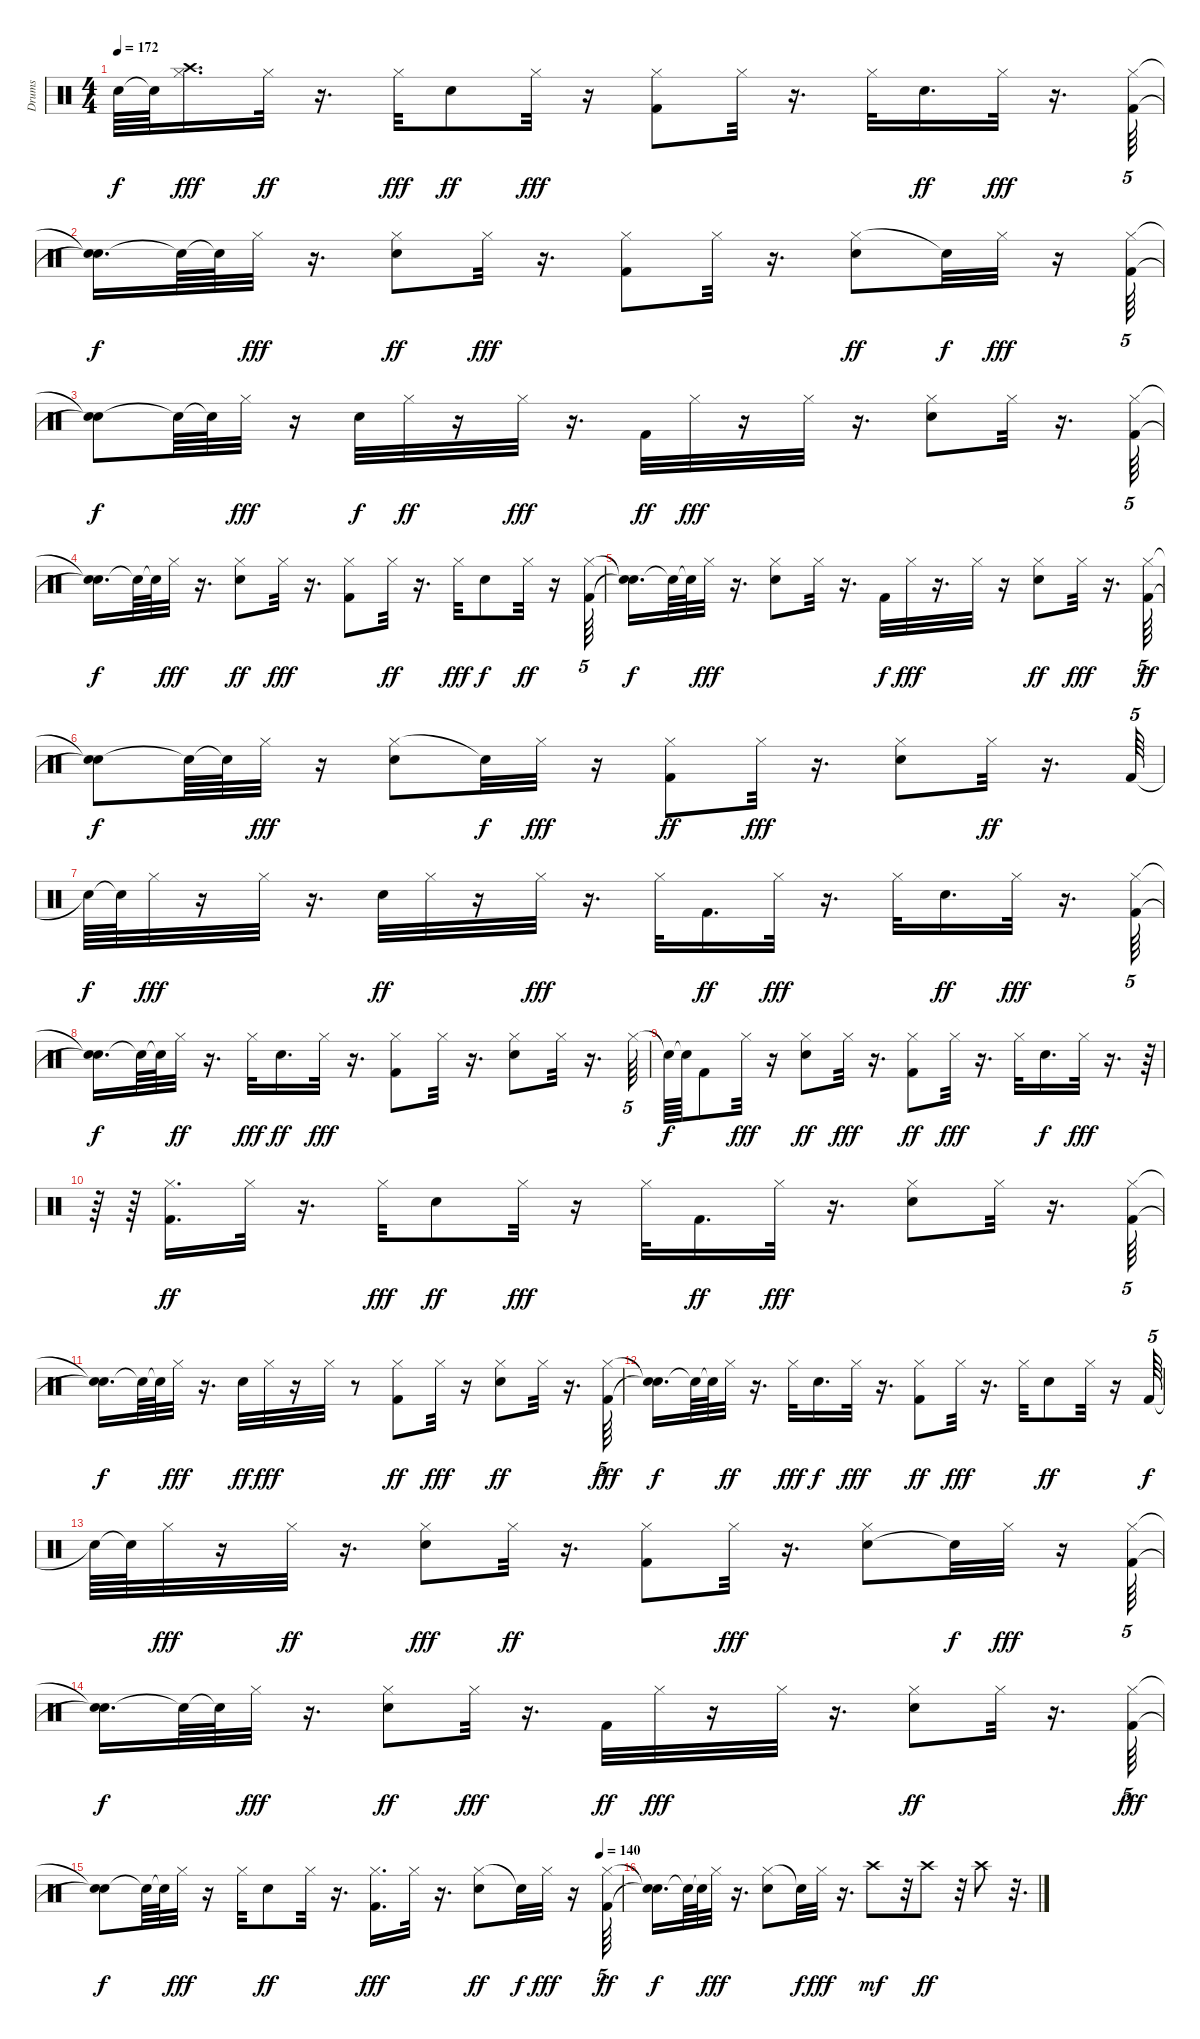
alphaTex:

\track ("Drums" "Drums") {instrument percussion}
\staff {score}
\articulation defaults
\ts (4 4)
\tempo 172
\clef neutral
\ks c "Snare (hit)"{t}.64{dy f} "Snare (hit)"{t}.64
("Hi-Hat (closed)" "Crash high (hit)").16{d dy fff} "Hi-Hat (closed)".32{dy ff} r.16{d} "Hi-Hat (closed)".32{dy fff} "Electric Snare (hit)".8{dy ff} "Hi-Hat (closed)".32{dy fff} r.16 ("Hi-Hat (closed)" "Kick (hit) 2").8 "Hi-Hat (closed)".32 r.16{d} "Hi-Hat (closed)".32 "Electric Snare (hit)".16{d dy ff} "Hi-Hat (closed)".32{dy fff} r.16{d} ("Kick (hit) 2" "Hi-Hat (closed)").64{tu (5 4)} |
("Snare (hit)"{t} "Snare (hit)"{t}).16{d dy f} "Snare (hit)"{t}.64 "Snare (hit)"{t}.64 "Hi-Hat (closed)".32{dy fff} r.16{d} ("Hi-Hat (closed)" "Electric Snare (hit)").8{dy ff} "Hi-Hat (closed)".32{dy fff} r.16{d} ("Hi-Hat (closed)" "Kick (hit) 2").8 "Hi-Hat (closed)".32 r.16{d} ("Hi-Hat (closed)" "Electric Snare (hit)").8{dy ff} "Snare (hit)"{t}.32{dy f} "Hi-Hat (closed)".32{dy fff} r.16 ("Kick (hit) 2" "Hi-Hat (closed)").64{tu (5 4)} |
("Snare (hit)"{t} "Snare (hit)"{t}).8{dy f} "Snare (hit)"{t}.64 "Snare (hit)"{t}.64 "Hi-Hat (closed)".32{dy fff} r.16 "Electric Snare (hit)".32{dy f} "Hi-Hat (closed)".32{dy ff} r.16 "Hi-Hat (closed)".32{dy fff} r.16{d} "Kick (hit) 2".32{dy ff} "Hi-Hat (closed)".32{dy fff} r.16 "Hi-Hat (closed)".32 r.16{d} ("Hi-Hat (closed)" "Electric Snare (hit)").8 "Hi-Hat (closed)".32 r.16{d} ("Kick (hit) 2" "Hi-Hat (closed)").64{tu (5 4)} |
("Snare (hit)"{t} "Snare (hit)"{t}).16{d dy f} "Snare (hit)"{t}.64 "Snare (hit)"{t}.64 "Hi-Hat (closed)".32{dy fff} r.16{d} ("Electric Snare (hit)" "Hi-Hat (closed)").8{dy ff} "Hi-Hat (closed)".32{dy fff} r.16{d} ("Kick (hit) 2" "Hi-Hat (closed)").8 "Hi-Hat (closed)".32{dy ff} r.16{d} "Hi-Hat (closed)".32{dy fff} "Electric Snare (hit)".8{dy f} "Hi-Hat (closed)".32{dy ff} r.16 ("Kick (hit) 2" "Hi-Hat (closed)").64{tu (5 4)} |
("Snare (hit)"{t} "Snare (hit)"{t}).16{d dy f} "Snare (hit)"{t}.64 "Snare (hit)"{t}.64 "Hi-Hat (closed)".32{dy fff} r.16{d} ("Electric Snare (hit)" "Hi-Hat (closed)").8 "Hi-Hat (closed)".32 r.16{d} "Kick (hit) 2".32{dy f} "Hi-Hat (closed)".32{dy fff} r.16{d} "Hi-Hat (closed)".32 r.16 ("Hi-Hat (closed)" "Electric Snare (hit)").8{dy ff} "Hi-Hat (closed)".32{dy fff} r.16{d} ("Hi-Hat (closed)" "Kick (hit) 2").64{tu (5 4) dy ff} |
("Snare (hit)"{t} "Snare (hit)"{t}).8{dy f} "Snare (hit)"{t}.64 "Snare (hit)"{t}.64 "Hi-Hat (closed)".32{dy fff} r.16 ("Hi-Hat (closed)" "Electric Snare (hit)").8 "Snare (hit)"{t}.32{dy f} "Hi-Hat (closed)".32{dy fff} r.16 ("Kick (hit) 2" "Hi-Hat (closed)").8{dy ff} "Hi-Hat (closed)".32{dy fff} r.16{d} ("Electric Snare (hit)" "Hi-Hat (closed)").8 "Hi-Hat (closed)".32{dy ff} r.16{d} "Kick (hit) 2".64{tu (5 4)} |
"Snare (hit)"{t}.64{dy f} "Snare (hit)"{t}.64 "Hi-Hat (closed)".32{dy fff} r.16 "Hi-Hat (closed)".32 r.16{d} "Electric Snare (hit)".32{dy ff} "Hi-Hat (closed)".32 r.16 "Hi-Hat (closed)".32{dy fff} r.16{d} "Hi-Hat (closed)".32 "Kick (hit) 2".16{d dy ff} "Hi-Hat (closed)".32{dy fff} r.16{d} "Hi-Hat (closed)".32 "Electric Snare (hit)".16{d dy ff} "Hi-Hat (closed)".32{dy fff} r.16{d} ("Kick (hit) 2" "Hi-Hat (closed)").64{tu (5 4)} |
("Snare (hit)"{t} "Snare (hit)"{t}).16{d dy f} "Snare (hit)"{t}.64 "Snare (hit)"{t}.64 "Hi-Hat (closed)".32{dy ff} r.16{d} "Hi-Hat (closed)".32{dy fff} "Electric Snare (hit)".16{d dy ff} "Hi-Hat (closed)".32{dy fff} r.16{d} ("Kick (hit) 2" "Hi-Hat (closed)").8 "Hi-Hat (closed)".32 r.16{d} ("Electric Snare (hit)" "Hi-Hat (closed)").8 "Hi-Hat (closed)".32 r.16{d} "Hi-Hat (closed)".64{tu (5 4)} |
"Snare (hit)"{t}.64{dy f} "Snare (hit)"{t}.64 "Kick (hit) 2".8 "Hi-Hat (closed)".32{dy fff} r.16 ("Hi-Hat (closed)" "Electric Snare (hit)").8{dy ff} "Hi-Hat (closed)".32{dy fff} r.16{d} ("Hi-Hat (closed)" "Kick (hit) 2").8{dy ff} "Hi-Hat (closed)".32{dy fff} r.16{d} "Hi-Hat (closed)".32 "Electric Snare (hit)".16{d dy f} "Hi-Hat (closed)".32{dy fff} r.16{d} r.64{tu (5 4)} |
r.64 r.64 ("Kick (hit) 2" "Hi-Hat (closed)").16{d dy ff} "Hi-Hat (closed)".32 r.16{d} "Hi-Hat (closed)".32{dy fff} "Electric Snare (hit)".8{dy ff} "Hi-Hat (closed)".32{dy fff} r.16 "Hi-Hat (closed)".32 "Kick (hit) 2".16{d dy ff} "Hi-Hat (closed)".32{dy fff} r.16{d} ("Electric Snare (hit)" "Hi-Hat (closed)").8 "Hi-Hat (closed)".32 r.16{d} ("Kick (hit) 2" "Hi-Hat (closed)").64{tu (5 4)} |
("Snare (hit)"{t} "Snare (hit)"{t}).16{d dy f} "Snare (hit)"{t}.64 "Snare (hit)"{t}.64 "Hi-Hat (closed)".32{dy fff} r.16{d} "Electric Snare (hit)".32{dy ff} "Hi-Hat (closed)".32{dy fff} r.16 "Hi-Hat (closed)".32 r.8 ("Hi-Hat (closed)" "Kick (hit) 2").8{dy ff} "Hi-Hat (closed)".32{dy fff} r.16 ("Hi-Hat (closed)" "Electric Snare (hit)").8{dy ff} "Hi-Hat (closed)".32 r.16{d} ("Kick (hit) 2" "Hi-Hat (closed)").64{tu (5 4) dy fff} |
("Snare (hit)"{t} "Snare (hit)"{t}).16{d dy f} "Snare (hit)"{t}.64 "Snare (hit)"{t}.64 "Hi-Hat (closed)".32{dy ff} r.16{d} "Hi-Hat (closed)".32{dy fff} "Electric Snare (hit)".16{d dy f} "Hi-Hat (closed)".32{dy fff} r.16{d} ("Hi-Hat (closed)" "Kick (hit) 2").8{dy ff} "Hi-Hat (closed)".32{dy fff} r.16{d} "Hi-Hat (closed)".32 "Electric Snare (hit)".8{dy ff} "Hi-Hat (closed)".32 r.16 "Kick (hit) 2".64{tu (5 4) dy f} |
"Snare (hit)"{t}.64 "Snare (hit)"{t}.64 "Hi-Hat (closed)".32{dy fff} r.16 "Hi-Hat (closed)".32{dy ff} r.16{d} ("Electric Snare (hit)" "Hi-Hat (closed)").8{dy fff} "Hi-Hat (closed)".32{dy ff} r.16{d} ("Hi-Hat (closed)" "Kick (hit) 2").8 "Hi-Hat (closed)".32{dy fff} r.16{d} ("Electric Snare (hit)" "Hi-Hat (closed)").8 "Snare (hit)"{t}.32{dy f} "Hi-Hat (closed)".32{dy fff} r.16 ("Kick (hit) 2" "Hi-Hat (closed)").64{tu (5 4)} |
("Snare (hit)"{t} "Snare (hit)"{t}).16{d dy f} "Snare (hit)"{t}.64 "Snare (hit)"{t}.64 "Hi-Hat (closed)".32{dy fff} r.16{d} ("Hi-Hat (closed)" "Electric Snare (hit)").8{dy ff} "Hi-Hat (closed)".32{dy fff} r.16{d} "Kick (hit) 2".32{dy ff} "Hi-Hat (closed)".32{dy fff} r.16 "Hi-Hat (closed)".32 r.16{d} ("Electric Snare (hit)" "Hi-Hat (closed)").8{dy ff} "Hi-Hat (closed)".32 r.16{d} ("Kick (hit) 2" "Hi-Hat (closed)").64{tu (5 4) dy fff} |
\tempo (140 0.9583333333333334)
("Snare (hit)"{t} "Snare (hit)"{t}).8{dy f} "Snare (hit)"{t}.64 "Snare (hit)"{t}.64 "Hi-Hat (closed)".32{dy fff} r.16 "Hi-Hat (closed)".32 "Electric Snare (hit)".8{dy ff} "Hi-Hat (closed)".32 r.16{d} ("Kick (hit) 2" "Hi-Hat (closed)").16{d dy fff} "Hi-Hat (closed)".32 r.16{d} ("Hi-Hat (closed)" "Electric Snare (hit)").8{dy ff} "Snare (hit)"{t}.32{dy f} "Hi-Hat (closed)".32{dy fff} r.16 ("Hi-Hat (closed)" "Kick (hit) 2").64{tu (5 4) dy ff} |
("Snare (hit)"{t} "Snare (hit)"{t}).16{d dy f} "Snare (hit)"{t}.64 "Snare (hit)"{t}.64 "Hi-Hat (closed)".32{dy fff} r.16{d} ("Hi-Hat (closed)" "Electric Snare (hit)").8 "Snare (hit)"{t}.32{dy f} "Hi-Hat (closed)".32{dy fff} r.16{d} "Crash high (hit)".8{dy mf} r.32 "Crash high (hit)".8{dy ff} r.32 "Crash high (hit)".8 r.32{d}
